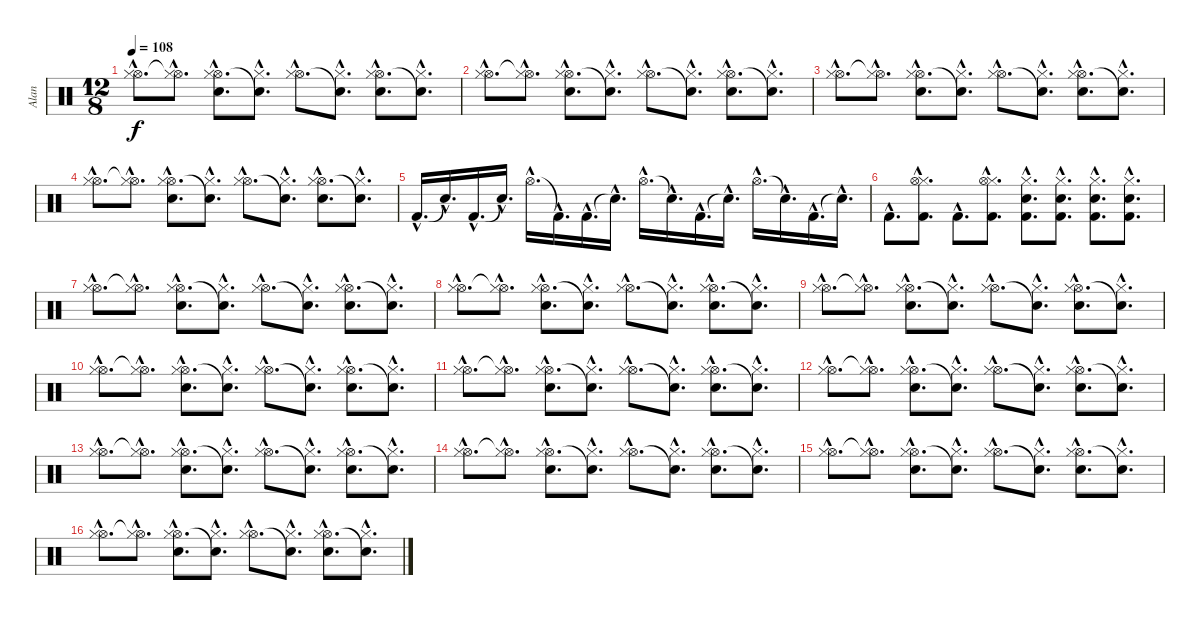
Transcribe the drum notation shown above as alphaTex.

\track ("Alan" "Alan") {instrument percussion}
\staff {score}
\articulation defaults
\ts (12 8)
\tempo 108
\clef neutral
\ks c
("Hi-Hat (open)"{hac} "Hi-Hat (closed)"{hac}).8{d dy f} ("Hi-Hat (open)"{hac t} "Hi-Hat (closed)"{hac}).8{d} ("Hi-Hat (open)"{hac} "Snare (hit) 2"{hac} "Hi-Hat (closed)"{hac}).8{d} ("Snare (hit)"{hac t} "Hi-Hat (closed)"{hac}).8{d} ("Hi-Hat (open)"{hac} "Hi-Hat (closed)"{hac}).8{d} ("Snare (hit)"{hac t} "Hi-Hat (closed)"{hac}).8{d} ("Hi-Hat (open)"{hac} "Snare (hit) 2"{hac} "Hi-Hat (closed)"{hac}).8{d} ("Snare (hit)"{hac t} "Hi-Hat (closed)"{hac}).8{d} |
("Hi-Hat (open)"{hac} "Hi-Hat (closed)"{hac}).8{d} ("Hi-Hat (open)"{hac t} "Hi-Hat (closed)"{hac}).8{d} ("Hi-Hat (open)"{hac} "Snare (hit) 2"{hac} "Hi-Hat (closed)"{hac}).8{d} ("Snare (hit)"{hac t} "Hi-Hat (closed)"{hac}).8{d} ("Hi-Hat (open)"{hac} "Hi-Hat (closed)"{hac}).8{d} ("Snare (hit)"{hac t} "Hi-Hat (closed)"{hac}).8{d} ("Hi-Hat (open)"{hac} "Snare (hit) 2"{hac} "Hi-Hat (closed)"{hac}).8{d} ("Snare (hit)"{hac t} "Hi-Hat (closed)"{hac}).8{d} |
("Hi-Hat (open)"{hac} "Hi-Hat (closed)"{hac}).8{d} ("Hi-Hat (open)"{hac t} "Hi-Hat (closed)"{hac}).8{d} ("Hi-Hat (open)"{hac} "Snare (hit) 2"{hac} "Hi-Hat (closed)"{hac}).8{d} ("Snare (hit)"{hac t} "Hi-Hat (closed)"{hac}).8{d} ("Hi-Hat (open)"{hac} "Hi-Hat (closed)"{hac}).8{d} ("Snare (hit)"{hac t} "Hi-Hat (closed)"{hac}).8{d} ("Hi-Hat (open)"{hac} "Snare (hit) 2"{hac} "Hi-Hat (closed)"{hac}).8{d} ("Snare (hit)"{hac t} "Hi-Hat (closed)"{hac}).8{d} |
("Hi-Hat (open)"{hac} "Hi-Hat (closed)"{hac}).8{d} ("Hi-Hat (open)"{hac t} "Hi-Hat (closed)"{hac}).8{d} ("Hi-Hat (open)"{hac} "Snare (hit) 2"{hac} "Hi-Hat (closed)"{hac}).8{d} ("Snare (hit)"{hac t} "Hi-Hat (closed)"{hac}).8{d} ("Hi-Hat (open)"{hac} "Hi-Hat (closed)"{hac}).8{d} ("Snare (hit)"{hac t} "Hi-Hat (closed)"{hac}).8{d} ("Hi-Hat (open)"{hac} "Snare (hit) 2"{hac} "Hi-Hat (closed)"{hac}).8{d} ("Snare (hit)"{hac t} "Hi-Hat (closed)"{hac}).8{d} |
"Kick (hit) 2"{hac}.16{d} "Snare (hit)"{hac t}.16{d} "Kick (hit) 2"{hac}.16{d} "Snare (hit)"{hac t}.16{d} "Hi-Hat (open)"{hac}.16{d} "Kick (hit) 2"{hac t}.16{d} "Kick (hit) 2"{hac}.16{d} "Snare (hit)"{hac t}.16{d} "Hi-Hat (open)"{hac}.16{d} "Snare (hit)"{hac t}.16{d} "Kick (hit) 2"{hac}.16{d} "Snare (hit)"{hac t}.16{d} "Hi-Hat (open)"{hac}.16{d} "Snare (hit)"{hac t}.16{d} "Kick (hit) 2"{hac}.16{d} "Snare (hit)"{hac t}.16{d} |
"Kick (hit) 2"{hac}.8{d} ("Hi-Hat (closed)"{hac} "Hi-Hat (open)"{hac} "Kick (hit) 2"{hac}).8{d} "Kick (hit) 2"{hac}.8{d} ("Hi-Hat (closed)"{hac} "Hi-Hat (open)"{hac} "Kick (hit) 2"{hac}).8{d} ("Hi-Hat (closed)"{hac} "Snare (hit) 2"{hac} "Kick (hit) 2"{hac}).8{d} ("Hi-Hat (closed)"{hac} "Snare (hit) 2"{hac} "Kick (hit) 2"{hac}).8{d} ("Hi-Hat (closed)"{hac} "Snare (hit) 2"{hac} "Kick (hit) 2"{hac}).8{d} ("Hi-Hat (closed)"{hac} "Snare (hit) 2"{hac} "Kick (hit) 2"{hac}).8{d} |
("Hi-Hat (open)"{hac} "Hi-Hat (closed)"{hac}).8{d} ("Hi-Hat (open)"{hac t} "Hi-Hat (closed)"{hac}).8{d} ("Hi-Hat (open)"{hac} "Snare (hit) 2"{hac} "Hi-Hat (closed)"{hac}).8{d} ("Snare (hit)"{hac t} "Hi-Hat (closed)"{hac}).8{d} ("Hi-Hat (open)"{hac} "Hi-Hat (closed)"{hac}).8{d} ("Snare (hit)"{hac t} "Hi-Hat (closed)"{hac}).8{d} ("Hi-Hat (open)"{hac} "Snare (hit) 2"{hac} "Hi-Hat (closed)"{hac}).8{d} ("Snare (hit)"{hac t} "Hi-Hat (closed)"{hac}).8{d} |
("Hi-Hat (open)"{hac} "Hi-Hat (closed)"{hac}).8{d} ("Hi-Hat (open)"{hac t} "Hi-Hat (closed)"{hac}).8{d} ("Hi-Hat (open)"{hac} "Snare (hit) 2"{hac} "Hi-Hat (closed)"{hac}).8{d} ("Snare (hit)"{hac t} "Hi-Hat (closed)"{hac}).8{d} ("Hi-Hat (open)"{hac} "Hi-Hat (closed)"{hac}).8{d} ("Snare (hit)"{hac t} "Hi-Hat (closed)"{hac}).8{d} ("Hi-Hat (open)"{hac} "Snare (hit) 2"{hac} "Hi-Hat (closed)"{hac}).8{d} ("Snare (hit)"{hac t} "Hi-Hat (closed)"{hac}).8{d} |
("Hi-Hat (open)"{hac} "Hi-Hat (closed)"{hac}).8{d} ("Hi-Hat (open)"{hac t} "Hi-Hat (closed)"{hac}).8{d} ("Hi-Hat (open)"{hac} "Snare (hit) 2"{hac} "Hi-Hat (closed)"{hac}).8{d} ("Snare (hit)"{hac t} "Hi-Hat (closed)"{hac}).8{d} ("Hi-Hat (open)"{hac} "Hi-Hat (closed)"{hac}).8{d} ("Snare (hit)"{hac t} "Hi-Hat (closed)"{hac}).8{d} ("Hi-Hat (open)"{hac} "Snare (hit) 2"{hac} "Hi-Hat (closed)"{hac}).8{d} ("Snare (hit)"{hac t} "Hi-Hat (closed)"{hac}).8{d} |
("Hi-Hat (open)"{hac} "Hi-Hat (closed)"{hac}).8{d} ("Hi-Hat (open)"{hac t} "Hi-Hat (closed)"{hac}).8{d} ("Hi-Hat (open)"{hac} "Snare (hit) 2"{hac} "Hi-Hat (closed)"{hac}).8{d} ("Snare (hit)"{hac t} "Hi-Hat (closed)"{hac}).8{d} ("Hi-Hat (open)"{hac} "Hi-Hat (closed)"{hac}).8{d} ("Snare (hit)"{hac t} "Hi-Hat (closed)"{hac}).8{d} ("Hi-Hat (open)"{hac} "Snare (hit) 2"{hac} "Hi-Hat (closed)"{hac}).8{d} ("Snare (hit)"{hac t} "Hi-Hat (closed)"{hac}).8{d} |
("Hi-Hat (open)"{hac} "Hi-Hat (closed)"{hac}).8{d} ("Hi-Hat (open)"{hac t} "Hi-Hat (closed)"{hac}).8{d} ("Hi-Hat (open)"{hac} "Snare (hit) 2"{hac} "Hi-Hat (closed)"{hac}).8{d} ("Snare (hit)"{hac t} "Hi-Hat (closed)"{hac}).8{d} ("Hi-Hat (open)"{hac} "Hi-Hat (closed)"{hac}).8{d} ("Snare (hit)"{hac t} "Hi-Hat (closed)"{hac}).8{d} ("Hi-Hat (open)"{hac} "Snare (hit) 2"{hac} "Hi-Hat (closed)"{hac}).8{d} ("Snare (hit)"{hac t} "Hi-Hat (closed)"{hac}).8{d} |
("Hi-Hat (open)"{hac} "Hi-Hat (closed)"{hac}).8{d} ("Hi-Hat (open)"{hac t} "Hi-Hat (closed)"{hac}).8{d} ("Hi-Hat (open)"{hac} "Snare (hit) 2"{hac} "Hi-Hat (closed)"{hac}).8{d} ("Snare (hit)"{hac t} "Hi-Hat (closed)"{hac}).8{d} ("Hi-Hat (open)"{hac} "Hi-Hat (closed)"{hac}).8{d} ("Snare (hit)"{hac t} "Hi-Hat (closed)"{hac}).8{d} ("Hi-Hat (open)"{hac} "Snare (hit) 2"{hac} "Hi-Hat (closed)"{hac}).8{d} ("Snare (hit)"{hac t} "Hi-Hat (closed)"{hac}).8{d} |
("Hi-Hat (open)"{hac} "Hi-Hat (closed)"{hac}).8{d} ("Hi-Hat (open)"{hac t} "Hi-Hat (closed)"{hac}).8{d} ("Hi-Hat (open)"{hac} "Snare (hit) 2"{hac} "Hi-Hat (closed)"{hac}).8{d} ("Snare (hit)"{hac t} "Hi-Hat (closed)"{hac}).8{d} ("Hi-Hat (open)"{hac} "Hi-Hat (closed)"{hac}).8{d} ("Snare (hit)"{hac t} "Hi-Hat (closed)"{hac}).8{d} ("Hi-Hat (open)"{hac} "Snare (hit) 2"{hac} "Hi-Hat (closed)"{hac}).8{d} ("Snare (hit)"{hac t} "Hi-Hat (closed)"{hac}).8{d} |
("Hi-Hat (open)"{hac} "Hi-Hat (closed)"{hac}).8{d} ("Hi-Hat (open)"{hac t} "Hi-Hat (closed)"{hac}).8{d} ("Hi-Hat (open)"{hac} "Snare (hit) 2"{hac} "Hi-Hat (closed)"{hac}).8{d} ("Snare (hit)"{hac t} "Hi-Hat (closed)"{hac}).8{d} ("Hi-Hat (open)"{hac} "Hi-Hat (closed)"{hac}).8{d} ("Snare (hit)"{hac t} "Hi-Hat (closed)"{hac}).8{d} ("Hi-Hat (open)"{hac} "Snare (hit) 2"{hac} "Hi-Hat (closed)"{hac}).8{d} ("Snare (hit)"{hac t} "Hi-Hat (closed)"{hac}).8{d} |
("Hi-Hat (open)"{hac} "Hi-Hat (closed)"{hac}).8{d} ("Hi-Hat (open)"{hac t} "Hi-Hat (closed)"{hac}).8{d} ("Hi-Hat (open)"{hac} "Snare (hit) 2"{hac} "Hi-Hat (closed)"{hac}).8{d} ("Snare (hit)"{hac t} "Hi-Hat (closed)"{hac}).8{d} ("Hi-Hat (open)"{hac} "Hi-Hat (closed)"{hac}).8{d} ("Snare (hit)"{hac t} "Hi-Hat (closed)"{hac}).8{d} ("Hi-Hat (open)"{hac} "Snare (hit) 2"{hac} "Hi-Hat (closed)"{hac}).8{d} ("Snare (hit)"{hac t} "Hi-Hat (closed)"{hac}).8{d} |
("Hi-Hat (open)"{hac} "Hi-Hat (closed)"{hac}).8{d} ("Hi-Hat (open)"{hac t} "Hi-Hat (closed)"{hac}).8{d} ("Hi-Hat (open)"{hac} "Snare (hit) 2"{hac} "Hi-Hat (closed)"{hac}).8{d} ("Snare (hit)"{hac t} "Hi-Hat (closed)"{hac}).8{d} ("Hi-Hat (open)"{hac} "Hi-Hat (closed)"{hac}).8{d} ("Snare (hit)"{hac t} "Hi-Hat (closed)"{hac}).8{d} ("Hi-Hat (open)"{hac} "Snare (hit) 2"{hac} "Hi-Hat (closed)"{hac}).8{d} ("Snare (hit)"{hac t} "Hi-Hat (closed)"{hac}).8{d}
